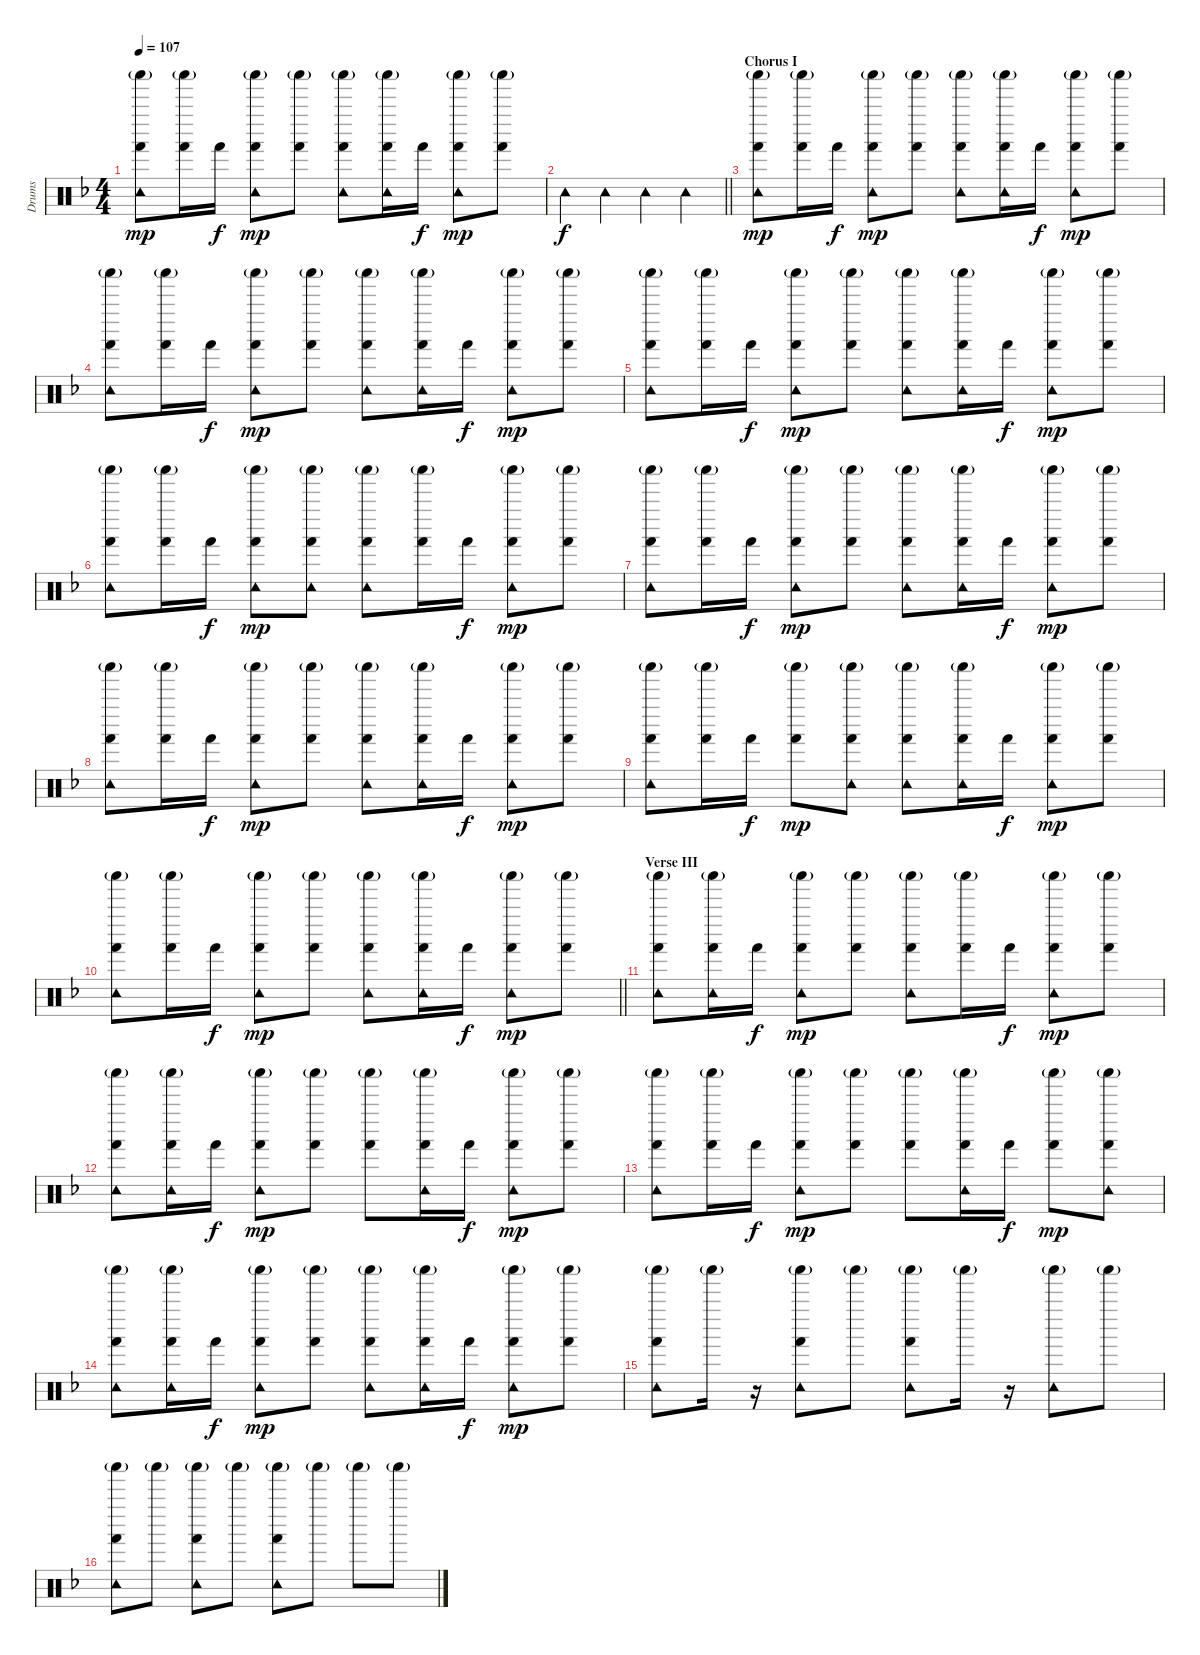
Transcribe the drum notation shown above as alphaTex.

\track ("Drums" "Drums") {instrument percussion}
\staff {score}
\articulation defaults
\ts (4 4)
\tempo 107
\clef neutral
\ks f
("Tambourine (hit)" "Shaker (hit)"{g} "Hand (hit)").8{dy mp} ("Shaker (hit)"{g} "Hand (hit)").16 "Hand (hit)".16{dy f} ("Tambourine (hit)" "Shaker (hit)"{g} "Hand (hit)").8{dy mp} ("Shaker (hit)"{g} "Hand (hit)").8 ("Tambourine (hit)" "Shaker (hit)"{g} "Hand (hit)").8 ("Tambourine (hit)" "Shaker (hit)"{g} "Hand (hit)").16 "Hand (hit)".16{dy f} ("Tambourine (hit)" "Shaker (hit)"{g} "Hand (hit)").8{dy mp} ("Shaker (hit)"{g} "Hand (hit)").8 |
\barLineRight lightlight "Tambourine (hit)".4{dy f} "Tambourine (hit)".4 "Tambourine (hit)".4 "Tambourine (hit)".4
|
\section ("" "Chorus I")
("Tambourine (hit)" "Shaker (hit)"{g} "Hand (hit)").8{dy mp} ("Shaker (hit)"{g} "Hand (hit)").16 "Hand (hit)".16{dy f} ("Tambourine (hit)" "Shaker (hit)"{g} "Hand (hit)").8{dy mp} ("Shaker (hit)"{g} "Hand (hit)").8 ("Tambourine (hit)" "Shaker (hit)"{g} "Hand (hit)").8 ("Tambourine (hit)" "Shaker (hit)"{g} "Hand (hit)").16 "Hand (hit)".16{dy f} ("Tambourine (hit)" "Shaker (hit)"{g} "Hand (hit)").8{dy mp} ("Shaker (hit)"{g} "Hand (hit)").8 |
("Tambourine (hit)" "Shaker (hit)"{g} "Hand (hit)").8 ("Shaker (hit)"{g} "Hand (hit)").16 "Hand (hit)".16{dy f} ("Tambourine (hit)" "Shaker (hit)"{g} "Hand (hit)").8{dy mp} ("Shaker (hit)"{g} "Hand (hit)").8 ("Tambourine (hit)" "Shaker (hit)"{g} "Hand (hit)").8 ("Tambourine (hit)" "Shaker (hit)"{g} "Hand (hit)").16 "Hand (hit)".16{dy f} ("Tambourine (hit)" "Shaker (hit)"{g} "Hand (hit)").8{dy mp} ("Shaker (hit)"{g} "Hand (hit)").8 |
("Tambourine (hit)" "Shaker (hit)"{g} "Hand (hit)").8 ("Shaker (hit)"{g} "Hand (hit)").16 "Hand (hit)".16{dy f} ("Tambourine (hit)" "Shaker (hit)"{g} "Hand (hit)").8{dy mp} ("Shaker (hit)"{g} "Hand (hit)").8 ("Tambourine (hit)" "Shaker (hit)"{g} "Hand (hit)").8 ("Tambourine (hit)" "Shaker (hit)"{g} "Hand (hit)").16 "Hand (hit)".16{dy f} ("Tambourine (hit)" "Shaker (hit)"{g} "Hand (hit)").8{dy mp} ("Shaker (hit)"{g} "Hand (hit)").8 |
("Tambourine (hit)" "Shaker (hit)"{g} "Hand (hit)").8 ("Shaker (hit)"{g} "Hand (hit)").16 "Hand (hit)".16{dy f} ("Tambourine (hit)" "Shaker (hit)"{g} "Hand (hit)").8{dy mp} ("Tambourine (hit)" "Shaker (hit)"{g} "Hand (hit)").8 ("Tambourine (hit)" "Shaker (hit)"{g} "Hand (hit)").8 ("Shaker (hit)"{g} "Hand (hit)").16 "Hand (hit)".16{dy f} ("Tambourine (hit)" "Shaker (hit)"{g} "Hand (hit)").8{dy mp} ("Shaker (hit)"{g} "Hand (hit)").8 |
("Tambourine (hit)" "Shaker (hit)"{g} "Hand (hit)").8 ("Shaker (hit)"{g} "Hand (hit)").16 "Hand (hit)".16{dy f} ("Tambourine (hit)" "Shaker (hit)"{g} "Hand (hit)").8{dy mp} ("Shaker (hit)"{g} "Hand (hit)").8 ("Tambourine (hit)" "Shaker (hit)"{g} "Hand (hit)").8 ("Tambourine (hit)" "Shaker (hit)"{g} "Hand (hit)").16 "Hand (hit)".16{dy f} ("Tambourine (hit)" "Shaker (hit)"{g} "Hand (hit)").8{dy mp} ("Shaker (hit)"{g} "Hand (hit)").8 |
("Tambourine (hit)" "Shaker (hit)"{g} "Hand (hit)").8 ("Shaker (hit)"{g} "Hand (hit)").16 "Hand (hit)".16{dy f} ("Tambourine (hit)" "Shaker (hit)"{g} "Hand (hit)").8{dy mp} ("Shaker (hit)"{g} "Hand (hit)").8 ("Tambourine (hit)" "Shaker (hit)"{g} "Hand (hit)").8 ("Tambourine (hit)" "Shaker (hit)"{g} "Hand (hit)").16 "Hand (hit)".16{dy f} ("Tambourine (hit)" "Shaker (hit)"{g} "Hand (hit)").8{dy mp} ("Shaker (hit)"{g} "Hand (hit)").8 |
("Tambourine (hit)" "Shaker (hit)"{g} "Hand (hit)").8 ("Shaker (hit)"{g} "Hand (hit)").16 "Hand (hit)".16{dy f} ("Shaker (hit)"{g} "Hand (hit)").8{dy mp} ("Tambourine (hit)" "Shaker (hit)"{g} "Hand (hit)").8 ("Tambourine (hit)" "Shaker (hit)"{g} "Hand (hit)").8 ("Tambourine (hit)" "Shaker (hit)"{g} "Hand (hit)").16 "Hand (hit)".16{dy f} ("Tambourine (hit)" "Shaker (hit)"{g} "Hand (hit)").8{dy mp} ("Shaker (hit)"{g} "Hand (hit)").8 |
\barLineRight lightlight
("Tambourine (hit)" "Shaker (hit)"{g} "Hand (hit)").8 ("Shaker (hit)"{g} "Hand (hit)").16 "Hand (hit)".16{dy f} ("Tambourine (hit)" "Shaker (hit)"{g} "Hand (hit)").8{dy mp} ("Shaker (hit)"{g} "Hand (hit)").8 ("Tambourine (hit)" "Shaker (hit)"{g} "Hand (hit)").8 ("Tambourine (hit)" "Shaker (hit)"{g} "Hand (hit)").16 "Hand (hit)".16{dy f} ("Tambourine (hit)" "Shaker (hit)"{g} "Hand (hit)").8{dy mp} ("Shaker (hit)"{g} "Hand (hit)").8 |
\section ("" "Verse III")
("Tambourine (hit)" "Shaker (hit)"{g} "Hand (hit)").8 ("Tambourine (hit)" "Shaker (hit)"{g} "Hand (hit)").16 "Hand (hit)".16{dy f} ("Tambourine (hit)" "Shaker (hit)"{g} "Hand (hit)").8{dy mp} ("Shaker (hit)"{g} "Hand (hit)").8 ("Tambourine (hit)" "Shaker (hit)"{g} "Hand (hit)").8 ("Shaker (hit)"{g} "Hand (hit)").16 "Hand (hit)".16{dy f} ("Tambourine (hit)" "Shaker (hit)"{g} "Hand (hit)").8{dy mp} ("Shaker (hit)"{g} "Hand (hit)").8 |
("Tambourine (hit)" "Shaker (hit)"{g} "Hand (hit)").8 ("Tambourine (hit)" "Shaker (hit)"{g} "Hand (hit)").16 "Hand (hit)".16{dy f} ("Tambourine (hit)" "Shaker (hit)"{g} "Hand (hit)").8{dy mp} ("Shaker (hit)"{g} "Hand (hit)").8 ("Shaker (hit)"{g} "Hand (hit)").8 ("Tambourine (hit)" "Shaker (hit)"{g} "Hand (hit)").16 "Hand (hit)".16{dy f} ("Tambourine (hit)" "Shaker (hit)"{g} "Hand (hit)").8{dy mp} ("Shaker (hit)"{g} "Hand (hit)").8 |
("Tambourine (hit)" "Shaker (hit)"{g} "Hand (hit)").8 ("Shaker (hit)"{g} "Hand (hit)").16 "Hand (hit)".16{dy f} ("Tambourine (hit)" "Shaker (hit)"{g} "Hand (hit)").8{dy mp} ("Shaker (hit)"{g} "Hand (hit)").8 ("Shaker (hit)"{g} "Hand (hit)").8 ("Tambourine (hit)" "Shaker (hit)"{g} "Hand (hit)").16 "Hand (hit)".16{dy f} ("Shaker (hit)"{g} "Hand (hit)").8{dy mp} ("Tambourine (hit)" "Shaker (hit)"{g} "Hand (hit)").8 |
("Tambourine (hit)" "Shaker (hit)"{g} "Hand (hit)").8 ("Tambourine (hit)" "Shaker (hit)"{g} "Hand (hit)").16 "Hand (hit)".16{dy f} ("Tambourine (hit)" "Shaker (hit)"{g} "Hand (hit)").8{dy mp} ("Shaker (hit)"{g} "Hand (hit)").8 ("Tambourine (hit)" "Shaker (hit)"{g} "Hand (hit)").8 ("Tambourine (hit)" "Shaker (hit)"{g} "Hand (hit)").16 "Hand (hit)".16{dy f} ("Tambourine (hit)" "Shaker (hit)"{g} "Hand (hit)").8{dy mp} ("Shaker (hit)"{g} "Hand (hit)").8 |
("Tambourine (hit)" "Shaker (hit)"{g} "Hand (hit)").8 "Shaker (hit)"{g}.16 r.16 ("Tambourine (hit)" "Shaker (hit)"{g} "Hand (hit)").8 "Shaker (hit)"{g}.8 ("Tambourine (hit)" "Shaker (hit)"{g} "Hand (hit)").8 "Shaker (hit)"{g}.16 r.16 ("Tambourine (hit)" "Shaker (hit)"{g}).8 "Shaker (hit)"{g}.8 |
("Tambourine (hit)" "Shaker (hit)"{g} "Hand (hit)").8 "Shaker (hit)"{g}.8 ("Tambourine (hit)" "Shaker (hit)"{g} "Hand (hit)").8 "Shaker (hit)"{g}.8 ("Tambourine (hit)" "Shaker (hit)"{g} "Hand (hit)").8 "Shaker (hit)"{g}.8 "Shaker (hit)"{g}.8 "Shaker (hit)"{g}.8
